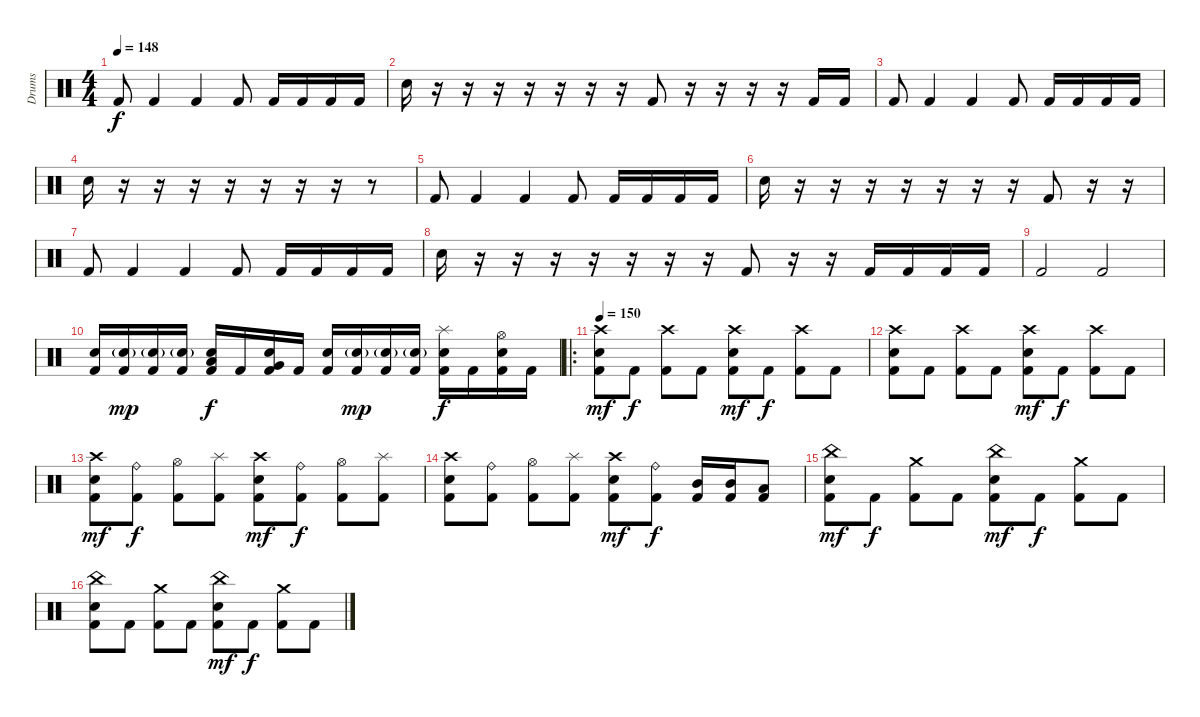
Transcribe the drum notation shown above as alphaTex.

\track ("Drums" "Drums") {solo instrument percussion}
\staff {score}
\articulation defaults
\ts (4 4)
\tempo 148
\clef neutral
\ks c "Kick (hit) 2".8{dy f} "Kick (hit) 2".4 "Kick (hit) 2".4 "Kick (hit) 2".8 "Kick (hit) 2".16 "Kick (hit) 2".16 "Kick (hit) 2".16 "Kick (hit) 2".16
|
"Electric Snare (hit)".16 r.16 r.16 r.16 r.16 r.16 r.16 r.16 "Kick (hit) 2".8 r.16 r.16 r.16 r.16 "Kick (hit) 2".16 "Kick (hit) 2".16 |
"Kick (hit) 2".8 "Kick (hit) 2".4 "Kick (hit) 2".4 "Kick (hit) 2".8 "Kick (hit) 2".16 "Kick (hit) 2".16 "Kick (hit) 2".16 "Kick (hit) 2".16 |
"Electric Snare (hit)".16 r.16 r.16 r.16 r.16 r.16 r.16 r.16 r.8 |
"Kick (hit) 2".8 "Kick (hit) 2".4 "Kick (hit) 2".4 "Kick (hit) 2".8 "Kick (hit) 2".16 "Kick (hit) 2".16 "Kick (hit) 2".16 "Kick (hit) 2".16 |
"Electric Snare (hit)".16 r.16 r.16 r.16 r.16 r.16 r.16 r.16 "Kick (hit) 2".8 r.16 r.16 |
"Kick (hit) 2".8 "Kick (hit) 2".4 "Kick (hit) 2".4 "Kick (hit) 2".8 "Kick (hit) 2".16 "Kick (hit) 2".16 "Kick (hit) 2".16 "Kick (hit) 2".16 |
"Electric Snare (hit)".16 r.16 r.16 r.16 r.16 r.16 r.16 r.16 "Kick (hit) 2".8 r.16 r.16 "Kick (hit) 2".16 "Kick (hit) 2".16 "Kick (hit) 2".16 "Kick (hit) 2".16 |
"Kick (hit) 2".2 "Kick (hit) 2".2 |
("Electric Snare (hit)" "Kick (hit) 2").16 ("Electric Snare (hit)"{g} "Kick (hit) 2").16{dy mp} ("Electric Snare (hit)"{g} "Kick (hit) 2").16 ("Electric Snare (hit)"{g} "Kick (hit) 2").16 ("Low Tom (hit)" "Electric Snare (hit)" "Kick (hit) 2").16{dy f} "Kick (hit) 2".16 ("Very Low Tom (hit)" "Electric Snare (hit)" "Kick (hit) 2").16 "Kick (hit) 2".16 ("Electric Snare (hit)" "Kick (hit) 2").16 ("Electric Snare (hit)"{g} "Kick (hit) 2").16{dy mp} ("Electric Snare (hit)"{g} "Kick (hit) 2").16 ("Electric Snare (hit)"{g} "Kick (hit) 2").16 ("Splash (hit)" "Electric Snare (hit)" "Kick (hit) 2").16{dy f} "Kick (hit) 2".16 ("Hi-Hat (open)" "Electric Snare (hit)" "Kick (hit) 2").16 "Kick (hit) 2".16 |
\ro
\tempo 150
("Crash high (hit)" "Electric Snare (hit)" "Kick (hit) 2").8{dy mf} "Kick (hit) 2".8{dy f} ("Crash high (hit)" "Kick (hit) 2").8 "Kick (hit) 2".8 ("Crash high (hit)" "Electric Snare (hit)" "Kick (hit) 2").8{dy mf} "Kick (hit) 2".8{dy f} ("Crash high (hit)" "Kick (hit) 2").8 "Kick (hit) 2".8 |
("Crash high (hit)" "Electric Snare (hit)" "Kick (hit) 2").8 "Kick (hit) 2".8 ("Crash high (hit)" "Kick (hit) 2").8 "Kick (hit) 2".8 ("Crash high (hit)" "Electric Snare (hit)" "Kick (hit) 2").8{dy mf} "Kick (hit) 2".8{dy f} ("Crash high (hit)" "Kick (hit) 2").8 "Kick (hit) 2".8 |
("Crash high (hit)" "Electric Snare (hit)" "Kick (hit) 2").8{dy mf} ("Ride (bell)" "Kick (hit) 2").8{dy f} ("Hi-Hat (open)" "Kick (hit) 2").8 ("Splash (hit)" "Kick (hit) 2").8 ("Crash high (hit)" "Electric Snare (hit)" "Kick (hit) 2").8{dy mf} ("Ride (bell)" "Kick (hit) 2").8{dy f} ("Hi-Hat (open)" "Kick (hit) 2").8 ("Splash (hit)" "Kick (hit) 2").8 |
("Crash high (hit)" "Electric Snare (hit)" "Kick (hit) 2").8 ("Ride (bell)" "Kick (hit) 2").8 ("Hi-Hat (open)" "Kick (hit) 2").8 ("Splash (hit)" "Kick (hit) 2").8 ("Crash high (hit)" "Electric Snare (hit)" "Kick (hit) 2").8{dy mf} ("Ride (bell)" "Kick (hit) 2").8{dy f} ("Mid Tom (hit)" "Kick (hit) 2").16 ("Mid Tom (hit)" "Kick (hit) 2").16 ("Low Tom (hit)" "Kick (hit) 2").8 |
("China (hit)" "Electric Snare (hit)" "Kick (hit) 2").8{dy mf} "Kick (hit) 2".8{dy f} ("Crash medium (hit)" "Kick (hit) 2").8 "Kick (hit) 2".8 ("China (hit)" "Electric Snare (hit)" "Kick (hit) 2").8{dy mf} "Kick (hit) 2".8{dy f} ("Crash medium (hit)" "Kick (hit) 2").8 "Kick (hit) 2".8 |
("China (hit)" "Electric Snare (hit)" "Kick (hit) 2").8 "Kick (hit) 2".8 ("Crash medium (hit)" "Kick (hit) 2").8 "Kick (hit) 2".8 ("China (hit)" "Electric Snare (hit)" "Kick (hit) 2").8{dy mf} "Kick (hit) 2".8{dy f} ("Crash medium (hit)" "Kick (hit) 2").8 "Kick (hit) 2".8
